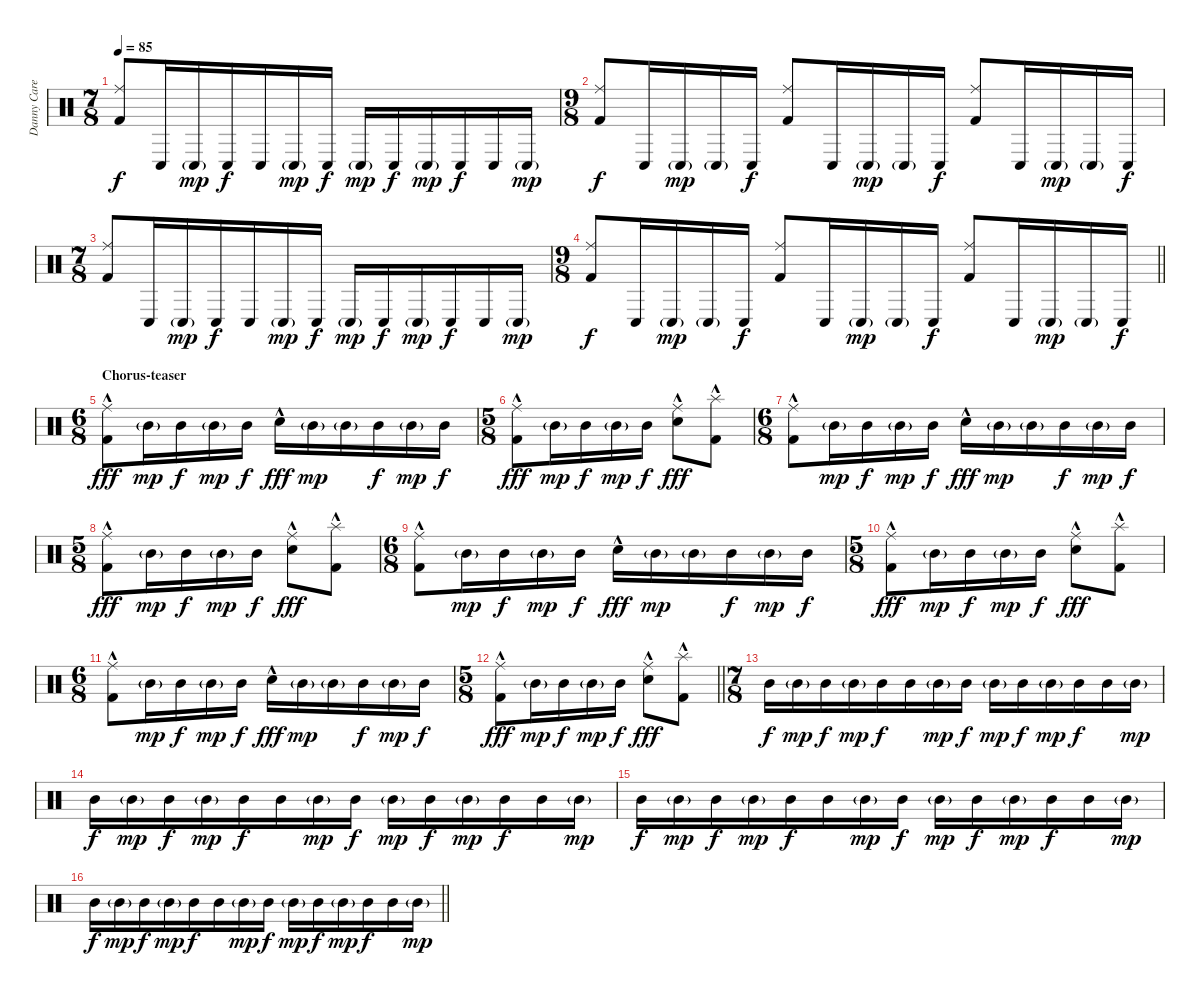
\track ("Danny Carey" "Danny Care") {instrument percussion}
\staff {score}
\articulation defaults
\ts (7 8)
\tempo 85
\clef neutral
\ks c
("Ride (middle)" "Kick (hit) 2").8{dy f} "Conga low (hit)".16 "Conga low (hit)"{g}.16{dy mp} "Conga low (hit)".16{dy f} "Conga low (hit)".16 "Conga low (hit)"{g}.16{dy mp} "Conga low (hit)".16{dy f} "Conga low (hit)"{g}.16{dy mp} "Conga low (hit)".16{dy f} "Conga low (hit)"{g}.16{dy mp} "Conga low (hit)".16{dy f} "Conga low (hit)".16 "Conga low (hit)"{g}.16{dy mp} |
\ts (9 8)
("Ride (middle)" "Kick (hit) 2").8{dy f} "Conga low (hit)".16 "Conga low (hit)"{g}.16{dy mp} "Conga low (hit)"{g}.16 "Conga low (hit)".16{dy f} ("Ride (middle)" "Kick (hit) 2").8 "Conga low (hit)".16 "Conga low (hit)"{g}.16{dy mp} "Conga low (hit)"{g}.16 "Conga low (hit)".16{dy f} ("Ride (middle)" "Kick (hit) 2").8 "Conga low (hit)".16 "Conga low (hit)"{g}.16{dy mp} "Conga low (hit)"{g}.16 "Conga low (hit)".16{dy f} |
\ts (7 8)
("Ride (middle)" "Kick (hit) 2").8 "Conga low (hit)".16 "Conga low (hit)"{g}.16{dy mp} "Conga low (hit)".16{dy f} "Conga low (hit)".16 "Conga low (hit)"{g}.16{dy mp} "Conga low (hit)".16{dy f} "Conga low (hit)"{g}.16{dy mp} "Conga low (hit)".16{dy f} "Conga low (hit)"{g}.16{dy mp} "Conga low (hit)".16{dy f} "Conga low (hit)".16 "Conga low (hit)"{g}.16{dy mp} |
\ts (9 8)
\barLineRight lightlight
("Ride (middle)" "Kick (hit) 2").8{dy f} "Conga low (hit)".16 "Conga low (hit)"{g}.16{dy mp} "Conga low (hit)"{g}.16 "Conga low (hit)".16{dy f} ("Ride (middle)" "Kick (hit) 2").8 "Conga low (hit)".16 "Conga low (hit)"{g}.16{dy mp} "Conga low (hit)"{g}.16 "Conga low (hit)".16{dy f} ("Ride (middle)" "Kick (hit) 2").8 "Conga low (hit)".16 "Conga low (hit)"{g}.16{dy mp} "Conga low (hit)"{g}.16 "Conga low (hit)".16{dy f} |
\ts (6 8)
\section ("" "Chorus-teaser")
("Ride (middle)" "Kick (hit) 2"{hac}).8{dy fff} "Mid Tom (hit)"{g}.16{dy mp} "Mid Tom (hit)".16{dy f} "Mid Tom (hit)"{g}.16{dy mp} "Mid Tom (hit)".16{dy f} "Electric Snare (hit)"{hac}.16{dy fff} "Mid Tom (hit)"{g}.16{dy mp} "Mid Tom (hit)"{g}.16 "Mid Tom (hit)".16{dy f} "Mid Tom (hit)"{g}.16{dy mp} "Mid Tom (hit)".16{dy f} |
\ts (5 8)
("Ride (middle)" "Kick (hit) 2"{hac}).8{dy fff} "Mid Tom (hit)"{g}.16{dy mp} "Mid Tom (hit)".16{dy f} "Mid Tom (hit)"{g}.16{dy mp} "Mid Tom (hit)".16{dy f} ("Ride (middle)" "Electric Snare (hit)"{hac}).8{dy fff} ("Splash (hit)" "Kick (hit) 2"{hac}).8 |
\ts (6 8)
("Ride (middle)" "Kick (hit) 2"{hac}).8 "Mid Tom (hit)"{g}.16{dy mp} "Mid Tom (hit)".16{dy f} "Mid Tom (hit)"{g}.16{dy mp} "Mid Tom (hit)".16{dy f} "Electric Snare (hit)"{hac}.16{dy fff} "Mid Tom (hit)"{g}.16{dy mp} "Mid Tom (hit)"{g}.16 "Mid Tom (hit)".16{dy f} "Mid Tom (hit)"{g}.16{dy mp} "Mid Tom (hit)".16{dy f} |
\ts (5 8)
("Ride (middle)" "Kick (hit) 2"{hac}).8{dy fff} "Mid Tom (hit)"{g}.16{dy mp} "Mid Tom (hit)".16{dy f} "Mid Tom (hit)"{g}.16{dy mp} "Mid Tom (hit)".16{dy f} ("Ride (middle)" "Electric Snare (hit)"{hac}).8{dy fff} ("Splash (hit)" "Kick (hit) 2"{hac}).8 |
\ts (6 8)
("Ride (middle)" "Kick (hit) 2"{hac}).8 "Mid Tom (hit)"{g}.16{dy mp} "Mid Tom (hit)".16{dy f} "Mid Tom (hit)"{g}.16{dy mp} "Mid Tom (hit)".16{dy f} "Electric Snare (hit)"{hac}.16{dy fff} "Mid Tom (hit)"{g}.16{dy mp} "Mid Tom (hit)"{g}.16 "Mid Tom (hit)".16{dy f} "Mid Tom (hit)"{g}.16{dy mp} "Mid Tom (hit)".16{dy f} |
\ts (5 8)
("Ride (middle)" "Kick (hit) 2"{hac}).8{dy fff} "Mid Tom (hit)"{g}.16{dy mp} "Mid Tom (hit)".16{dy f} "Mid Tom (hit)"{g}.16{dy mp} "Mid Tom (hit)".16{dy f} ("Ride (middle)" "Electric Snare (hit)"{hac}).8{dy fff} ("Splash (hit)" "Kick (hit) 2"{hac}).8 |
\ts (6 8)
("Ride (middle)" "Kick (hit) 2"{hac}).8 "Mid Tom (hit)"{g}.16{dy mp} "Mid Tom (hit)".16{dy f} "Mid Tom (hit)"{g}.16{dy mp} "Mid Tom (hit)".16{dy f} "Electric Snare (hit)"{hac}.16{dy fff} "Mid Tom (hit)"{g}.16{dy mp} "Mid Tom (hit)"{g}.16 "Mid Tom (hit)".16{dy f} "Mid Tom (hit)"{g}.16{dy mp} "Mid Tom (hit)".16{dy f} |
\ts (5 8)
\barLineRight lightlight
("Ride (middle)" "Kick (hit) 2"{hac}).8{dy fff} "Mid Tom (hit)"{g}.16{dy mp} "Mid Tom (hit)".16{dy f} "Mid Tom (hit)"{g}.16{dy mp} "Mid Tom (hit)".16{dy f} ("Ride (middle)" "Electric Snare (hit)"{hac}).8{dy fff} ("Splash (hit)" "Kick (hit) 2"{hac}).8 |
\ts (7 8)
\section ("" "")
"Mid Tom (hit)".16{dy f} "Mid Tom (hit)"{g}.16{dy mp} "Mid Tom (hit)".16{dy f} "Mid Tom (hit)"{g}.16{dy mp} "Mid Tom (hit)".16{dy f} "Mid Tom (hit)".16 "Mid Tom (hit)"{g}.16{dy mp} "Mid Tom (hit)".16{dy f} "Mid Tom (hit)"{g}.16{dy mp} "Mid Tom (hit)".16{dy f} "Mid Tom (hit)"{g}.16{dy mp} "Mid Tom (hit)".16{dy f} "Mid Tom (hit)".16 "Mid Tom (hit)"{g}.16{dy mp} |
"Mid Tom (hit)".16{dy f} "Mid Tom (hit)"{g}.16{dy mp} "Mid Tom (hit)".16{dy f} "Mid Tom (hit)"{g}.16{dy mp} "Mid Tom (hit)".16{dy f} "Mid Tom (hit)".16 "Mid Tom (hit)"{g}.16{dy mp} "Mid Tom (hit)".16{dy f} "Mid Tom (hit)"{g}.16{dy mp} "Mid Tom (hit)".16{dy f} "Mid Tom (hit)"{g}.16{dy mp} "Mid Tom (hit)".16{dy f} "Mid Tom (hit)".16 "Mid Tom (hit)"{g}.16{dy mp} |
"Mid Tom (hit)".16{dy f} "Mid Tom (hit)"{g}.16{dy mp} "Mid Tom (hit)".16{dy f} "Mid Tom (hit)"{g}.16{dy mp} "Mid Tom (hit)".16{dy f} "Mid Tom (hit)".16 "Mid Tom (hit)"{g}.16{dy mp} "Mid Tom (hit)".16{dy f} "Mid Tom (hit)"{g}.16{dy mp} "Mid Tom (hit)".16{dy f} "Mid Tom (hit)"{g}.16{dy mp} "Mid Tom (hit)".16{dy f} "Mid Tom (hit)".16 "Mid Tom (hit)"{g}.16{dy mp} |
\barLineRight lightlight "Mid Tom (hit)".16{dy f} "Mid Tom (hit)"{g}.16{dy mp} "Mid Tom (hit)".16{dy f} "Mid Tom (hit)"{g}.16{dy mp} "Mid Tom (hit)".16{dy f} "Mid Tom (hit)".16 "Mid Tom (hit)"{g}.16{dy mp} "Mid Tom (hit)".16{dy f} "Mid Tom (hit)"{g}.16{dy mp} "Mid Tom (hit)".16{dy f} "Mid Tom (hit)"{g}.16{dy mp} "Mid Tom (hit)".16{dy f} "Mid Tom (hit)".16 "Mid Tom (hit)"{g}.16{dy mp}
